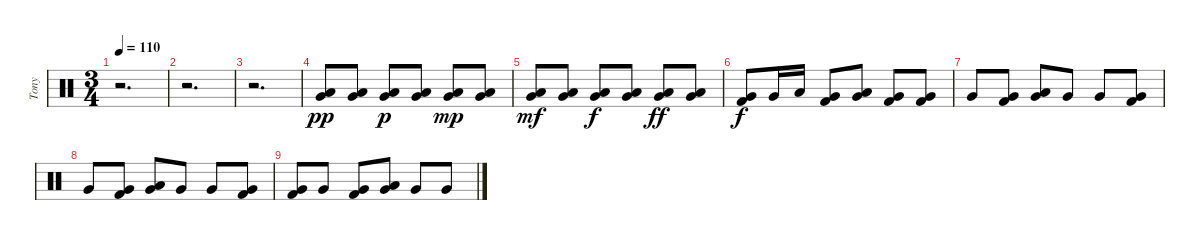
\track ("Tony" "Tony") {instrument percussion}
\staff {score}
\articulation defaults
\ts (3 4)
\tempo 110
\clef neutral
\ks c
r.2{d dy f} |
r.2{d} |
r.2{d} |
("Low Tom (hit)" "Very Low Tom (hit)").8{dy pp} ("Low Tom (hit)" "Very Low Tom (hit)").8 ("Low Tom (hit)" "Very Low Tom (hit)").8{dy p} ("Low Tom (hit)" "Very Low Tom (hit)").8 ("Low Tom (hit)" "Very Low Tom (hit)").8{dy mp} ("Low Tom (hit)" "Very Low Tom (hit)").8 |
("Low Tom (hit)" "Very Low Tom (hit)").8{dy mf} ("Low Tom (hit)" "Very Low Tom (hit)").8 ("Low Tom (hit)" "Very Low Tom (hit)").8{dy f} ("Low Tom (hit)" "Very Low Tom (hit)").8 ("Low Tom (hit)" "Very Low Tom (hit)").8{dy ff} ("Low Tom (hit)" "Very Low Tom (hit)").8 |
("Kick (hit) 2" "Very Low Tom (hit)").8{dy f} "Very Low Tom (hit)".16 "Low Tom (hit)".16 ("Kick (hit) 2" "Very Low Tom (hit)").8 ("Low Tom (hit)" "Very Low Tom (hit)").8 ("Kick (hit) 2" "Very Low Tom (hit)").8 ("Kick (hit) 2" "Very Low Tom (hit)").8 |
"Very Low Tom (hit)".8 ("Kick (hit) 2" "Very Low Tom (hit)").8 ("Low Tom (hit)" "Very Low Tom (hit)").8 "Very Low Tom (hit)".8 "Very Low Tom (hit)".8 ("Kick (hit) 2" "Very Low Tom (hit)").8 |
"Very Low Tom (hit)".8 ("Kick (hit) 2" "Very Low Tom (hit)").8 ("Low Tom (hit)" "Very Low Tom (hit)").8 "Very Low Tom (hit)".8 "Very Low Tom (hit)".8 ("Kick (hit) 2" "Very Low Tom (hit)").8 |
("Kick (hit) 2" "Very Low Tom (hit)").8 "Very Low Tom (hit)".8 ("Kick (hit) 2" "Very Low Tom (hit)").8 ("Low Tom (hit)" "Very Low Tom (hit)").8 "Very Low Tom (hit)".8 "Very Low Tom (hit)".8
